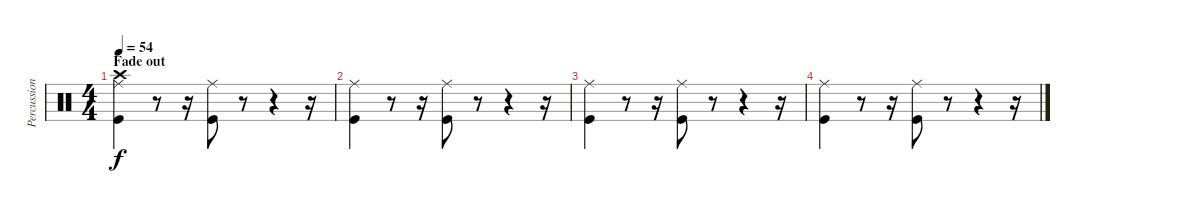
\track ("Percussions" "Percussion") {instrument percussion}
\staff {score}
\articulation defaults
\ts (4 4)
\section ("" "Fade out")
\tempo 54
\clef neutral
\ks c
("Ride (middle)" "Crash high (hit)" "Kick (hit)").4{dy f} r.8 r.16 ("Ride (middle)" "Kick (hit)").8 r.8 r.4 r.16 |
("Ride (middle)" "Kick (hit)").4 r.8 r.16 ("Ride (middle)" "Kick (hit)").8 r.8 r.4 r.16 |
("Ride (middle)" "Kick (hit)").4 r.8 r.16 ("Ride (middle)" "Kick (hit)").8 r.8 r.4 r.16 |
("Ride (middle)" "Kick (hit)").4 r.8 r.16 ("Ride (middle)" "Kick (hit)").8 r.8 r.4 r.16
